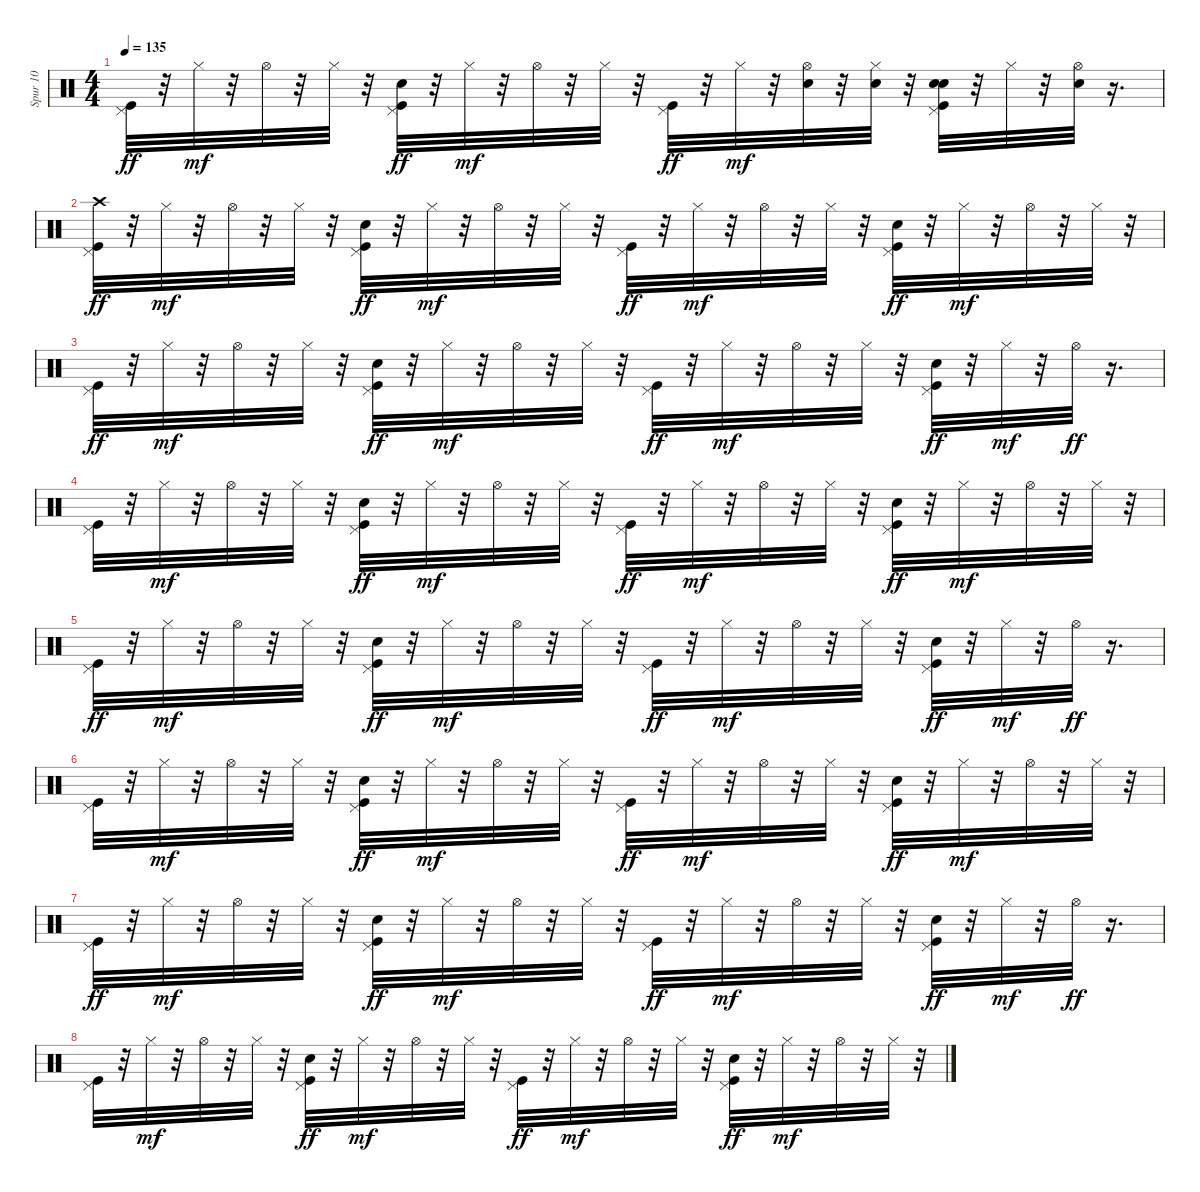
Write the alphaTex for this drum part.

\track ("Spur 10" "Spur 10") {instrument percussion}
\staff {score}
\articulation defaults
\ts (4 4)
\tempo 135
\clef neutral
\ks c
("Kick (hit)" "Pedal Hi-Hat (hit)").32{dy ff} r.32 "Hi-Hat (closed)".32{dy mf} r.32 "Hi-Hat (open)".32 r.32 "Hi-Hat (closed)".32 r.32 ("Kick (hit)" "Hand Clap (hit)" "Pedal Hi-Hat (hit)").32{dy ff} r.32 "Hi-Hat (closed)".32{dy mf} r.32 "Hi-Hat (open)".32 r.32 "Hi-Hat (closed)".32 r.32 ("Kick (hit)" "Pedal Hi-Hat (hit)").32{dy ff} r.32 "Hi-Hat (closed)".32{dy mf} r.32 ("Hi-Hat (open)" "Snare (hit) 2").32 r.32 ("Hi-Hat (closed)" "Snare (hit) 2").32 r.32 ("Kick (hit)" "Hand Clap (hit)" "Pedal Hi-Hat (hit)" "Snare (hit) 2").32 r.32 "Hi-Hat (closed)".32 r.32 ("Hi-Hat (open)" "Snare (hit) 2").32 r.16{d} |
("Crash high (hit)" "Kick (hit)" "Pedal Hi-Hat (hit)").32{dy ff} r.32 "Hi-Hat (closed)".32{dy mf} r.32 "Hi-Hat (open)".32 r.32 "Hi-Hat (closed)".32 r.32 ("Kick (hit)" "Hand Clap (hit)" "Pedal Hi-Hat (hit)").32{dy ff} r.32 "Hi-Hat (closed)".32{dy mf} r.32 "Hi-Hat (open)".32 r.32 "Hi-Hat (closed)".32 r.32 ("Kick (hit)" "Pedal Hi-Hat (hit)").32{dy ff} r.32 "Hi-Hat (closed)".32{dy mf} r.32 "Hi-Hat (open)".32 r.32 "Hi-Hat (closed)".32 r.32 ("Kick (hit)" "Hand Clap (hit)" "Pedal Hi-Hat (hit)").32{dy ff} r.32 "Hi-Hat (closed)".32{dy mf} r.32 "Hi-Hat (open)".32 r.32 "Hi-Hat (closed)".32 r.32 |
("Kick (hit)" "Pedal Hi-Hat (hit)").32{dy ff} r.32 "Hi-Hat (closed)".32{dy mf} r.32 "Hi-Hat (open)".32 r.32 "Hi-Hat (closed)".32 r.32 ("Kick (hit)" "Hand Clap (hit)" "Pedal Hi-Hat (hit)").32{dy ff} r.32 "Hi-Hat (closed)".32{dy mf} r.32 "Hi-Hat (open)".32 r.32 "Hi-Hat (closed)".32 r.32 ("Kick (hit)" "Pedal Hi-Hat (hit)").32{dy ff} r.32 "Hi-Hat (closed)".32{dy mf} r.32 "Hi-Hat (open)".32 r.32 "Hi-Hat (closed)".32 r.32 ("Kick (hit)" "Hand Clap (hit)" "Pedal Hi-Hat (hit)").32{dy ff} r.32 "Hi-Hat (closed)".32{dy mf} r.32 "Hi-Hat (open)".32{dy ff} r.16{d} |
("Kick (hit)" "Pedal Hi-Hat (hit)").32 r.32 "Hi-Hat (closed)".32{dy mf} r.32 "Hi-Hat (open)".32 r.32 "Hi-Hat (closed)".32 r.32 ("Kick (hit)" "Hand Clap (hit)" "Pedal Hi-Hat (hit)").32{dy ff} r.32 "Hi-Hat (closed)".32{dy mf} r.32 "Hi-Hat (open)".32 r.32 "Hi-Hat (closed)".32 r.32 ("Kick (hit)" "Pedal Hi-Hat (hit)").32{dy ff} r.32 "Hi-Hat (closed)".32{dy mf} r.32 "Hi-Hat (open)".32 r.32 "Hi-Hat (closed)".32 r.32 ("Kick (hit)" "Hand Clap (hit)" "Pedal Hi-Hat (hit)").32{dy ff} r.32 "Hi-Hat (closed)".32{dy mf} r.32 "Hi-Hat (open)".32 r.32 "Hi-Hat (closed)".32 r.32 |
("Kick (hit)" "Pedal Hi-Hat (hit)").32{dy ff} r.32 "Hi-Hat (closed)".32{dy mf} r.32 "Hi-Hat (open)".32 r.32 "Hi-Hat (closed)".32 r.32 ("Kick (hit)" "Hand Clap (hit)" "Pedal Hi-Hat (hit)").32{dy ff} r.32 "Hi-Hat (closed)".32{dy mf} r.32 "Hi-Hat (open)".32 r.32 "Hi-Hat (closed)".32 r.32 ("Kick (hit)" "Pedal Hi-Hat (hit)").32{dy ff} r.32 "Hi-Hat (closed)".32{dy mf} r.32 "Hi-Hat (open)".32 r.32 "Hi-Hat (closed)".32 r.32 ("Kick (hit)" "Hand Clap (hit)" "Pedal Hi-Hat (hit)").32{dy ff} r.32 "Hi-Hat (closed)".32{dy mf} r.32 "Hi-Hat (open)".32{dy ff} r.16{d} |
("Kick (hit)" "Pedal Hi-Hat (hit)").32 r.32 "Hi-Hat (closed)".32{dy mf} r.32 "Hi-Hat (open)".32 r.32 "Hi-Hat (closed)".32 r.32 ("Kick (hit)" "Hand Clap (hit)" "Pedal Hi-Hat (hit)").32{dy ff} r.32 "Hi-Hat (closed)".32{dy mf} r.32 "Hi-Hat (open)".32 r.32 "Hi-Hat (closed)".32 r.32 ("Kick (hit)" "Pedal Hi-Hat (hit)").32{dy ff} r.32 "Hi-Hat (closed)".32{dy mf} r.32 "Hi-Hat (open)".32 r.32 "Hi-Hat (closed)".32 r.32 ("Kick (hit)" "Hand Clap (hit)" "Pedal Hi-Hat (hit)").32{dy ff} r.32 "Hi-Hat (closed)".32{dy mf} r.32 "Hi-Hat (open)".32 r.32 "Hi-Hat (closed)".32 r.32 |
("Kick (hit)" "Pedal Hi-Hat (hit)").32{dy ff} r.32 "Hi-Hat (closed)".32{dy mf} r.32 "Hi-Hat (open)".32 r.32 "Hi-Hat (closed)".32 r.32 ("Kick (hit)" "Hand Clap (hit)" "Pedal Hi-Hat (hit)").32{dy ff} r.32 "Hi-Hat (closed)".32{dy mf} r.32 "Hi-Hat (open)".32 r.32 "Hi-Hat (closed)".32 r.32 ("Kick (hit)" "Pedal Hi-Hat (hit)").32{dy ff} r.32 "Hi-Hat (closed)".32{dy mf} r.32 "Hi-Hat (open)".32 r.32 "Hi-Hat (closed)".32 r.32 ("Kick (hit)" "Hand Clap (hit)" "Pedal Hi-Hat (hit)").32{dy ff} r.32 "Hi-Hat (closed)".32{dy mf} r.32 "Hi-Hat (open)".32{dy ff} r.16{d} |
("Kick (hit)" "Pedal Hi-Hat (hit)").32 r.32 "Hi-Hat (closed)".32{dy mf} r.32 "Hi-Hat (open)".32 r.32 "Hi-Hat (closed)".32 r.32 ("Kick (hit)" "Hand Clap (hit)" "Pedal Hi-Hat (hit)").32{dy ff} r.32 "Hi-Hat (closed)".32{dy mf} r.32 "Hi-Hat (open)".32 r.32 "Hi-Hat (closed)".32 r.32 ("Kick (hit)" "Pedal Hi-Hat (hit)").32{dy ff} r.32 "Hi-Hat (closed)".32{dy mf} r.32 "Hi-Hat (open)".32 r.32 "Hi-Hat (closed)".32 r.32 ("Kick (hit)" "Hand Clap (hit)" "Pedal Hi-Hat (hit)").32{dy ff} r.32 "Hi-Hat (closed)".32{dy mf} r.32 "Hi-Hat (open)".32 r.32 "Hi-Hat (closed)".32 r.32
